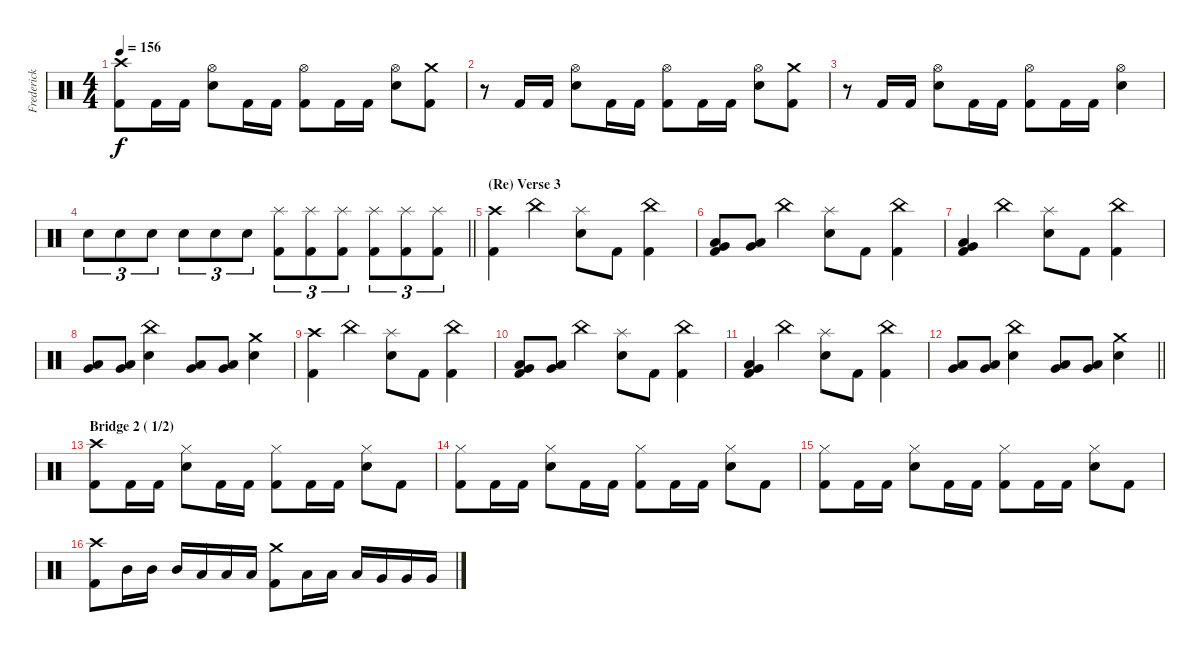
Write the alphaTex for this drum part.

\track ("Frederick Ehmke" "Frederick ") {instrument percussion}
\staff {score}
\articulation defaults
\ts (4 4)
\tempo 156
\clef neutral
\ks c
("Crash high (hit)" "Kick (hit) 2").8{dy f} "Kick (hit) 2".16 "Kick (hit) 2".16 ("Hi-Hat (open)" "Electric Snare (hit)").8 "Kick (hit) 2".16 "Kick (hit) 2".16 ("Hi-Hat (open)" "Kick (hit) 2").8 "Kick (hit) 2".16 "Kick (hit) 2".16 ("Hi-Hat (open)" "Electric Snare (hit)").8 ("Crash medium (hit)" "Kick (hit) 2").8 |
r.8 "Kick (hit) 2".16 "Kick (hit) 2".16 ("Hi-Hat (open)" "Electric Snare (hit)").8 "Kick (hit) 2".16 "Kick (hit) 2".16 ("Hi-Hat (open)" "Kick (hit) 2").8 "Kick (hit) 2".16 "Kick (hit) 2".16 ("Hi-Hat (open)" "Electric Snare (hit)").8 ("Crash medium (hit)" "Kick (hit) 2").8 |
r.8 "Kick (hit) 2".16 "Kick (hit) 2".16 ("Hi-Hat (open)" "Electric Snare (hit)").8 "Kick (hit) 2".16 "Kick (hit) 2".16 ("Hi-Hat (open)" "Kick (hit) 2").8 "Kick (hit) 2".16 "Kick (hit) 2".16 ("Hi-Hat (open)" "Electric Snare (hit)").4 |
\barLineRight lightlight "Electric Snare (hit)".8{tu (3 2)} "Electric Snare (hit)".8{tu (3 2)} "Electric Snare (hit)".8{tu (3 2)} "Electric Snare (hit)".8{tu (3 2)} "Electric Snare (hit)".8{tu (3 2)} "Electric Snare (hit)".8{tu (3 2)}
("Splash (hit)" "Kick (hit) 2").8{tu (3 2)} ("Splash (hit)" "Kick (hit) 2").8{tu (3 2)} ("Splash (hit)" "Kick (hit) 2").8{tu (3 2)} ("Splash (hit)" "Kick (hit) 2").8{tu (3 2)} ("Splash (hit)" "Kick (hit) 2").8{tu (3 2)} ("Splash (hit)" "Kick (hit) 2").8{tu (3 2)} |
\section ("" "(Re) Verse 3")
("Crash high (hit)" "Kick (hit) 2").4 "China (hit)".4 ("Splash (hit)" "Electric Snare (hit)").8 "Kick (hit) 2".8 ("China (hit)" "Kick (hit) 2").4 |
("Kick (hit) 2" "Very Low Tom (hit)" "Low Tom (hit)").8 ("Very Low Tom (hit)" "Low Tom (hit)").8 "China (hit)".4 ("Splash (hit)" "Electric Snare (hit)").8 "Kick (hit) 2".8 ("China (hit)" "Kick (hit) 2").4 |
("Kick (hit) 2" "Very Low Tom (hit)" "Low Floor Tom (hit)").4 "China (hit)".4 ("Splash (hit)" "Electric Snare (hit)").8 "Kick (hit) 2".8 ("China (hit)" "Kick (hit) 2").4 |
("Low Tom (hit)" "Very Low Tom (hit)").8 ("Low Tom (hit)" "Very Low Tom (hit)").8 ("China (hit)" "Electric Snare (hit)").4 ("Very Low Tom (hit)" "Low Floor Tom (hit)").8 ("Very Low Tom (hit)" "Low Floor Tom (hit)").8 ("Crash medium (hit)" "Electric Snare (hit)").4 |
("Crash high (hit)" "Kick (hit) 2").4 "China (hit)".4 ("Splash (hit)" "Electric Snare (hit)").8 "Kick (hit) 2".8 ("China (hit)" "Kick (hit) 2").4 |
("Kick (hit) 2" "Very Low Tom (hit)" "Low Tom (hit)").8 ("Very Low Tom (hit)" "Low Tom (hit)").8 "China (hit)".4 ("Splash (hit)" "Electric Snare (hit)").8 "Kick (hit) 2".8 ("China (hit)" "Kick (hit) 2").4 |
("Kick (hit) 2" "Very Low Tom (hit)" "Low Floor Tom (hit)").4 "China (hit)".4 ("Splash (hit)" "Electric Snare (hit)").8 "Kick (hit) 2".8 ("China (hit)" "Kick (hit) 2").4 |
\barLineRight lightlight
("Low Tom (hit)" "Very Low Tom (hit)").8 ("Low Tom (hit)" "Very Low Tom (hit)").8 ("China (hit)" "Electric Snare (hit)").4 ("Very Low Tom (hit)" "Low Floor Tom (hit)").8 ("Very Low Tom (hit)" "Low Floor Tom (hit)").8 ("Crash medium (hit)" "Electric Snare (hit)").4 |
\section ("" "Bridge 2 ( 1/2)")
("Crash high (hit)" "Kick (hit) 2").8 "Kick (hit) 2".16 "Kick (hit) 2".16 ("Hi-Hat (closed)" "Electric Snare (hit)").8 "Kick (hit) 2".16 "Kick (hit) 2".16 ("Hi-Hat (closed)" "Kick (hit) 2").8 "Kick (hit) 2".16 "Kick (hit) 2".16 ("Hi-Hat (closed)" "Electric Snare (hit)").8 "Kick (hit) 2".8 |
("Hi-Hat (closed)" "Kick (hit) 2").8 "Kick (hit) 2".16 "Kick (hit) 2".16 ("Hi-Hat (closed)" "Electric Snare (hit)").8 "Kick (hit) 2".16 "Kick (hit) 2".16 ("Hi-Hat (closed)" "Kick (hit) 2").8 "Kick (hit) 2".16 "Kick (hit) 2".16 ("Hi-Hat (closed)" "Electric Snare (hit)").8 "Kick (hit) 2".8 |
("Hi-Hat (closed)" "Kick (hit) 2").8 "Kick (hit) 2".16 "Kick (hit) 2".16 ("Hi-Hat (closed)" "Electric Snare (hit)").8 "Kick (hit) 2".16 "Kick (hit) 2".16 ("Hi-Hat (closed)" "Kick (hit) 2").8 "Kick (hit) 2".16 "Kick (hit) 2".16 ("Hi-Hat (closed)" "Electric Snare (hit)").8 "Kick (hit) 2".8 |
("Crash high (hit)" "Kick (hit) 2").8 "Mid Tom (hit)".16 "Mid Tom (hit)".16 "Mid Tom (hit)".16 "Low Tom (hit)".16 "Low Tom (hit)".16 "Low Tom (hit)".16 ("Crash medium (hit)" "Kick (hit) 2").8 "Low Tom (hit)".16 "Low Tom (hit)".16 "Low Tom (hit)".16 "Very Low Tom (hit)".16 "Very Low Tom (hit)".16 "Very Low Tom (hit)".16
